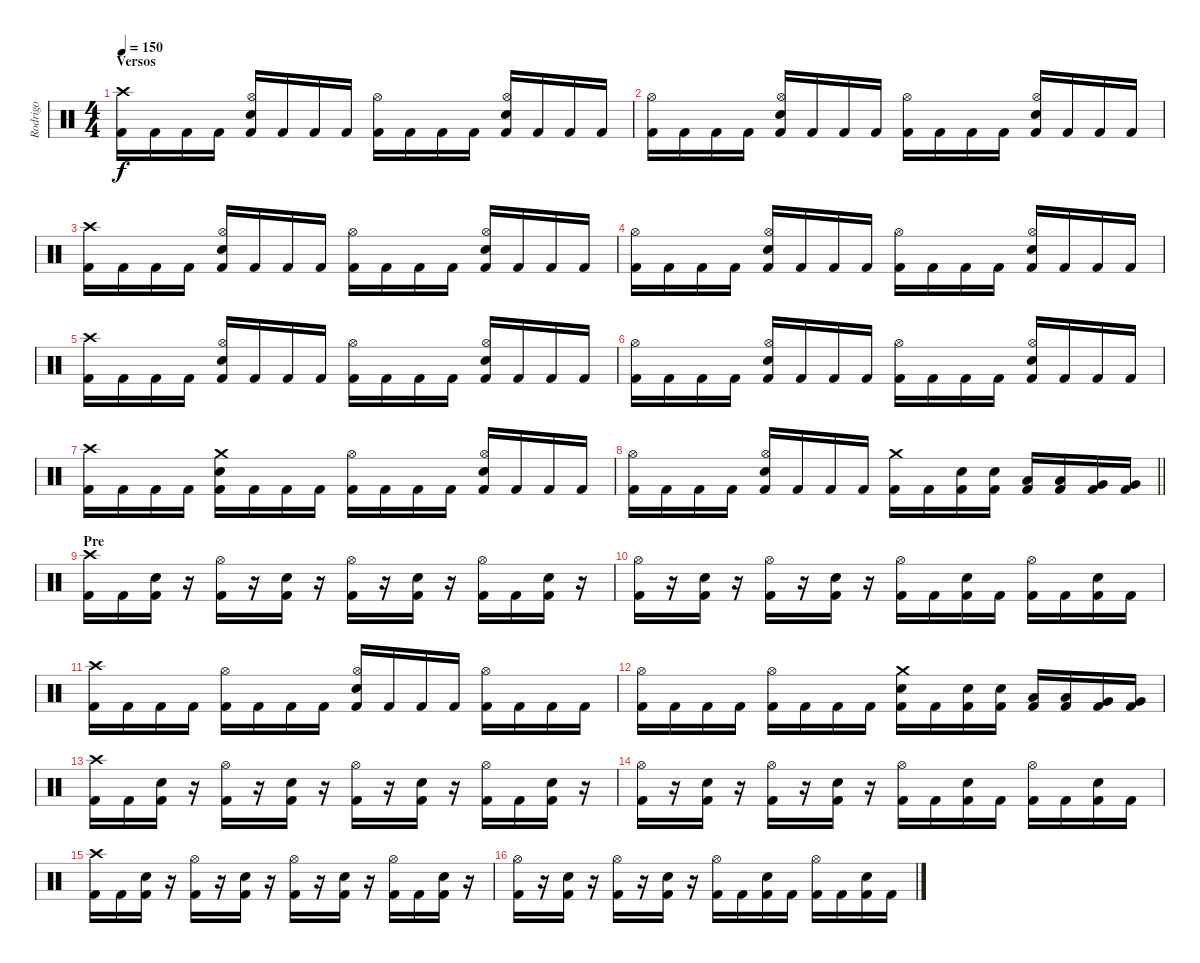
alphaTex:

\track ("Rodrigo" "Rodrigo") {instrument percussion}
\staff {score}
\articulation defaults
\ts (4 4)
\section ("" "Versos")
\tempo 150
\clef neutral
\ks c
("Crash high (hit)" "Kick (hit) 2").16{dy f} "Kick (hit) 2".16 "Kick (hit) 2".16 "Kick (hit) 2".16 ("Hi-Hat (open)" "Electric Snare (hit)" "Kick (hit) 2").16 "Kick (hit) 2".16 "Kick (hit) 2".16 "Kick (hit) 2".16 ("Hi-Hat (open)" "Kick (hit) 2").16 "Kick (hit) 2".16 "Kick (hit) 2".16 "Kick (hit) 2".16 ("Hi-Hat (open)" "Electric Snare (hit)" "Kick (hit) 2").16 "Kick (hit) 2".16 "Kick (hit) 2".16 "Kick (hit) 2".16 |
("Hi-Hat (open)" "Kick (hit) 2").16 "Kick (hit) 2".16 "Kick (hit) 2".16 "Kick (hit) 2".16 ("Hi-Hat (open)" "Electric Snare (hit)" "Kick (hit) 2").16 "Kick (hit) 2".16 "Kick (hit) 2".16 "Kick (hit) 2".16 ("Hi-Hat (open)" "Kick (hit) 2").16 "Kick (hit) 2".16 "Kick (hit) 2".16 "Kick (hit) 2".16 ("Hi-Hat (open)" "Electric Snare (hit)" "Kick (hit) 2").16 "Kick (hit) 2".16 "Kick (hit) 2".16 "Kick (hit) 2".16 |
("Crash high (hit)" "Kick (hit) 2").16 "Kick (hit) 2".16 "Kick (hit) 2".16 "Kick (hit) 2".16 ("Hi-Hat (open)" "Electric Snare (hit)" "Kick (hit) 2").16 "Kick (hit) 2".16 "Kick (hit) 2".16 "Kick (hit) 2".16 ("Hi-Hat (open)" "Kick (hit) 2").16 "Kick (hit) 2".16 "Kick (hit) 2".16 "Kick (hit) 2".16 ("Hi-Hat (open)" "Electric Snare (hit)" "Kick (hit) 2").16 "Kick (hit) 2".16 "Kick (hit) 2".16 "Kick (hit) 2".16 |
("Hi-Hat (open)" "Kick (hit) 2").16 "Kick (hit) 2".16 "Kick (hit) 2".16 "Kick (hit) 2".16 ("Hi-Hat (open)" "Electric Snare (hit)" "Kick (hit) 2").16 "Kick (hit) 2".16 "Kick (hit) 2".16 "Kick (hit) 2".16 ("Hi-Hat (open)" "Kick (hit) 2").16 "Kick (hit) 2".16 "Kick (hit) 2".16 "Kick (hit) 2".16 ("Hi-Hat (open)" "Electric Snare (hit)" "Kick (hit) 2").16 "Kick (hit) 2".16 "Kick (hit) 2".16 "Kick (hit) 2".16 |
("Crash high (hit)" "Kick (hit) 2").16 "Kick (hit) 2".16 "Kick (hit) 2".16 "Kick (hit) 2".16 ("Hi-Hat (open)" "Electric Snare (hit)" "Kick (hit) 2").16 "Kick (hit) 2".16 "Kick (hit) 2".16 "Kick (hit) 2".16 ("Hi-Hat (open)" "Kick (hit) 2").16 "Kick (hit) 2".16 "Kick (hit) 2".16 "Kick (hit) 2".16 ("Hi-Hat (open)" "Electric Snare (hit)" "Kick (hit) 2").16 "Kick (hit) 2".16 "Kick (hit) 2".16 "Kick (hit) 2".16 |
("Hi-Hat (open)" "Kick (hit) 2").16 "Kick (hit) 2".16 "Kick (hit) 2".16 "Kick (hit) 2".16 ("Hi-Hat (open)" "Electric Snare (hit)" "Kick (hit) 2").16 "Kick (hit) 2".16 "Kick (hit) 2".16 "Kick (hit) 2".16 ("Hi-Hat (open)" "Kick (hit) 2").16 "Kick (hit) 2".16 "Kick (hit) 2".16 "Kick (hit) 2".16 ("Hi-Hat (open)" "Electric Snare (hit)" "Kick (hit) 2").16 "Kick (hit) 2".16 "Kick (hit) 2".16 "Kick (hit) 2".16 |
("Crash high (hit)" "Kick (hit) 2").16 "Kick (hit) 2".16 "Kick (hit) 2".16 "Kick (hit) 2".16 ("Crash medium (hit)" "Electric Snare (hit)" "Kick (hit) 2").16 "Kick (hit) 2".16 "Kick (hit) 2".16 "Kick (hit) 2".16 ("Hi-Hat (open)" "Kick (hit) 2").16 "Kick (hit) 2".16 "Kick (hit) 2".16 "Kick (hit) 2".16 ("Hi-Hat (open)" "Electric Snare (hit)" "Kick (hit) 2").16 "Kick (hit) 2".16 "Kick (hit) 2".16 "Kick (hit) 2".16 |
\barLineRight lightlight
("Hi-Hat (open)" "Kick (hit) 2").16 "Kick (hit) 2".16 "Kick (hit) 2".16 "Kick (hit) 2".16 ("Hi-Hat (open)" "Electric Snare (hit)" "Kick (hit) 2").16 "Kick (hit) 2".16 "Kick (hit) 2".16 "Kick (hit) 2".16 ("Crash medium (hit)" "Kick (hit) 2").16 "Kick (hit) 2".16 ("Electric Snare (hit)" "Kick (hit) 2").16 ("Electric Snare (hit)" "Kick (hit) 2").16 ("Low Tom (hit)" "Kick (hit) 2").16 ("Low Tom (hit)" "Kick (hit) 2").16 ("Very Low Tom (hit)" "Kick (hit) 2").16 ("Very Low Tom (hit)" "Kick (hit) 2").16 |
\section ("" "Pre")
("Crash high (hit)" "Kick (hit) 2").16 "Kick (hit) 2".16 ("Electric Snare (hit)" "Kick (hit) 2").16 r.16 ("Hi-Hat (open)" "Kick (hit) 2").16 r.16 ("Electric Snare (hit)" "Kick (hit) 2").16 r.16 ("Hi-Hat (open)" "Kick (hit) 2").16 r.16 ("Electric Snare (hit)" "Kick (hit) 2").16 r.16 ("Hi-Hat (open)" "Kick (hit) 2").16 "Kick (hit) 2".16 ("Electric Snare (hit)" "Kick (hit) 2").16 r.16 |
("Hi-Hat (open)" "Kick (hit) 2").16 r.16 ("Electric Snare (hit)" "Kick (hit) 2").16 r.16 ("Hi-Hat (open)" "Kick (hit) 2").16 r.16 ("Electric Snare (hit)" "Kick (hit) 2").16 r.16 ("Hi-Hat (open)" "Kick (hit) 2").16 "Kick (hit) 2".16 ("Electric Snare (hit)" "Kick (hit) 2").16 "Kick (hit) 2".16 ("Hi-Hat (open)" "Kick (hit) 2").16 "Kick (hit) 2".16 ("Electric Snare (hit)" "Kick (hit) 2").16 "Kick (hit) 2".16 |
("Crash high (hit)" "Kick (hit) 2").16 "Kick (hit) 2".16 "Kick (hit) 2".16 "Kick (hit) 2".16 ("Hi-Hat (open)" "Kick (hit) 2").16 "Kick (hit) 2".16 "Kick (hit) 2".16 "Kick (hit) 2".16 ("Hi-Hat (open)" "Electric Snare (hit)" "Kick (hit) 2").16 "Kick (hit) 2".16 "Kick (hit) 2".16 "Kick (hit) 2".16 ("Hi-Hat (open)" "Kick (hit) 2").16 "Kick (hit) 2".16 "Kick (hit) 2".16 "Kick (hit) 2".16 |
("Hi-Hat (open)" "Kick (hit) 2").16 "Kick (hit) 2".16 "Kick (hit) 2".16 "Kick (hit) 2".16 ("Hi-Hat (open)" "Kick (hit) 2").16 "Kick (hit) 2".16 "Kick (hit) 2".16 "Kick (hit) 2".16 ("Crash medium (hit)" "Electric Snare (hit)" "Kick (hit) 2").16 "Kick (hit) 2".16 ("Electric Snare (hit)" "Kick (hit) 2").16 ("Electric Snare (hit)" "Kick (hit) 2").16 ("Low Tom (hit)" "Kick (hit) 2").16 ("Low Tom (hit)" "Kick (hit) 2").16 ("Very Low Tom (hit)" "Kick (hit) 2").16 ("Very Low Tom (hit)" "Kick (hit) 2").16 |
("Crash high (hit)" "Kick (hit) 2").16 "Kick (hit) 2".16 ("Electric Snare (hit)" "Kick (hit) 2").16 r.16 ("Hi-Hat (open)" "Kick (hit) 2").16 r.16 ("Electric Snare (hit)" "Kick (hit) 2").16 r.16 ("Hi-Hat (open)" "Kick (hit) 2").16 r.16 ("Electric Snare (hit)" "Kick (hit) 2").16 r.16 ("Hi-Hat (open)" "Kick (hit) 2").16 "Kick (hit) 2".16 ("Electric Snare (hit)" "Kick (hit) 2").16 r.16 |
("Hi-Hat (open)" "Kick (hit) 2").16 r.16 ("Electric Snare (hit)" "Kick (hit) 2").16 r.16 ("Hi-Hat (open)" "Kick (hit) 2").16 r.16 ("Electric Snare (hit)" "Kick (hit) 2").16 r.16 ("Hi-Hat (open)" "Kick (hit) 2").16 "Kick (hit) 2".16 ("Electric Snare (hit)" "Kick (hit) 2").16 "Kick (hit) 2".16 ("Hi-Hat (open)" "Kick (hit) 2").16 "Kick (hit) 2".16 ("Electric Snare (hit)" "Kick (hit) 2").16 "Kick (hit) 2".16 |
("Crash high (hit)" "Kick (hit) 2").16 "Kick (hit) 2".16 ("Electric Snare (hit)" "Kick (hit) 2").16 r.16 ("Hi-Hat (open)" "Kick (hit) 2").16 r.16 ("Electric Snare (hit)" "Kick (hit) 2").16 r.16 ("Hi-Hat (open)" "Kick (hit) 2").16 r.16 ("Electric Snare (hit)" "Kick (hit) 2").16 r.16 ("Hi-Hat (open)" "Kick (hit) 2").16 "Kick (hit) 2".16 ("Electric Snare (hit)" "Kick (hit) 2").16 r.16 |
("Hi-Hat (open)" "Kick (hit) 2").16 r.16 ("Electric Snare (hit)" "Kick (hit) 2").16 r.16 ("Hi-Hat (open)" "Kick (hit) 2").16 r.16 ("Electric Snare (hit)" "Kick (hit) 2").16 r.16 ("Hi-Hat (open)" "Kick (hit) 2").16 "Kick (hit) 2".16 ("Electric Snare (hit)" "Kick (hit) 2").16 "Kick (hit) 2".16 ("Hi-Hat (open)" "Kick (hit) 2").16 "Kick (hit) 2".16 ("Electric Snare (hit)" "Kick (hit) 2").16 "Kick (hit) 2".16
